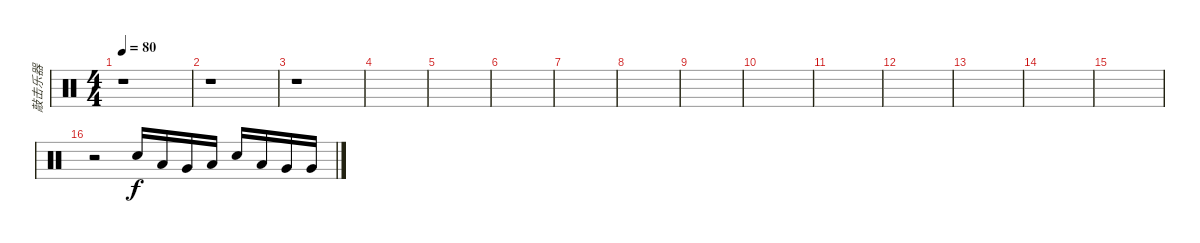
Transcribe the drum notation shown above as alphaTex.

\track ("敲击乐器" "敲击乐器") {instrument percussion}
\staff {score}
\articulation defaults
\ts (4 4)
\tempo 80
\clef neutral
\ks c
r.1{dy f} |
r.1 |
r.1 |
|
|
|
|
|
|
|
|
|
|
|
|
r.2 "Electric Snare (hit)".16 "Low Tom (hit)".16 "Very Low Tom (hit)".16 "Low Floor Tom (hit)".16 "Electric Snare (hit)".16 "Low Tom (hit)".16 "Very Low Tom (hit)".16 "Very Low Tom (hit)".16
